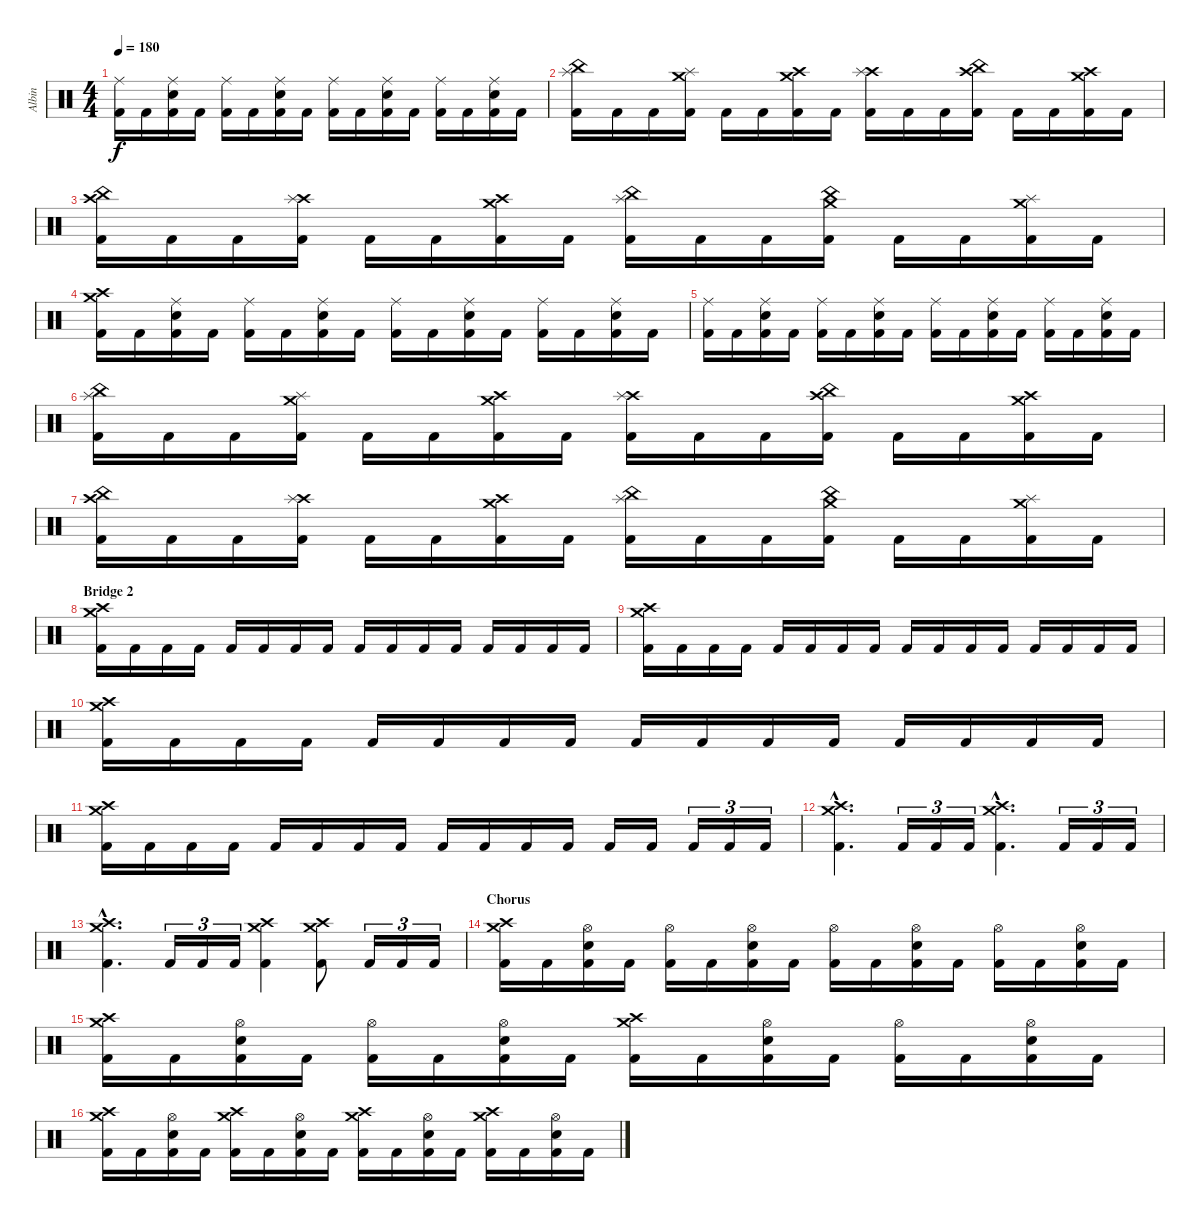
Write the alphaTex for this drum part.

\track ("Albin" "Albin") {instrument percussion}
\staff {score}
\articulation defaults
\ts (4 4)
\tempo 180
\clef neutral
\ks c
("Kick (hit) 2" "Ride (middle)").16{dy f} "Kick (hit) 2".16 ("Kick (hit) 2" "Electric Snare (hit)" "Ride (middle)").16 "Kick (hit) 2".16 ("Kick (hit) 2" "Ride (middle)").16 "Kick (hit) 2".16 ("Kick (hit) 2" "Electric Snare (hit)" "Ride (middle)").16 "Kick (hit) 2".16 ("Kick (hit) 2" "Ride (middle)").16 "Kick (hit) 2".16 ("Kick (hit) 2" "Electric Snare (hit)" "Ride (middle)").16 "Kick (hit) 2".16 ("Kick (hit) 2" "Ride (middle)").16 "Kick (hit) 2".16 ("Kick (hit) 2" "Electric Snare (hit)" "Ride (middle)").16 "Kick (hit) 2".16 |
("Kick (hit) 2" "Splash (hit)" "China (hit)").16 "Kick (hit) 2".16 "Kick (hit) 2".16 ("Kick (hit) 2" "Crash medium (hit)" "Splash (hit)").16 "Kick (hit) 2".16 "Kick (hit) 2".16 ("Kick (hit) 2" "Crash high (hit)" "Crash medium (hit)").16 "Kick (hit) 2".16 ("Kick (hit) 2" "Crash high (hit)" "Splash (hit)").16 "Kick (hit) 2".16 "Kick (hit) 2".16 ("Kick (hit) 2" "Crash high (hit)" "China (hit)").16 "Kick (hit) 2".16 "Kick (hit) 2".16 ("Kick (hit) 2" "Crash high (hit)" "Crash medium (hit)").16 "Kick (hit) 2".16 |
("Kick (hit) 2" "Crash high (hit)" "China (hit)").16 "Kick (hit) 2".16 "Kick (hit) 2".16 ("Kick (hit) 2" "Crash high (hit)" "Splash (hit)").16 "Kick (hit) 2".16 "Kick (hit) 2".16 ("Kick (hit) 2" "Crash high (hit)" "Crash medium (hit)").16 "Kick (hit) 2".16 ("Kick (hit) 2" "China (hit)" "Splash (hit)").16 "Kick (hit) 2".16 "Kick (hit) 2".16 ("Kick (hit) 2" "China (hit)" "Crash medium (hit)").16 "Kick (hit) 2".16 "Kick (hit) 2".16 ("Kick (hit) 2" "Splash (hit)" "Crash medium (hit)").16 "Kick (hit) 2".16 |
("Kick (hit) 2" "Crash high (hit)" "Crash medium (hit)").16 "Kick (hit) 2".16 ("Kick (hit) 2" "Electric Snare (hit)" "Ride (middle)").16 "Kick (hit) 2".16 ("Kick (hit) 2" "Ride (middle)").16 "Kick (hit) 2".16 ("Kick (hit) 2" "Electric Snare (hit)" "Ride (middle)").16 "Kick (hit) 2".16 ("Kick (hit) 2" "Ride (middle)").16 "Kick (hit) 2".16 ("Kick (hit) 2" "Electric Snare (hit)" "Ride (middle)").16 "Kick (hit) 2".16 ("Kick (hit) 2" "Ride (middle)").16 "Kick (hit) 2".16 ("Kick (hit) 2" "Electric Snare (hit)" "Ride (middle)").16 "Kick (hit) 2".16 |
("Kick (hit) 2" "Ride (middle)").16 "Kick (hit) 2".16 ("Kick (hit) 2" "Electric Snare (hit)" "Ride (middle)").16 "Kick (hit) 2".16 ("Kick (hit) 2" "Ride (middle)").16 "Kick (hit) 2".16 ("Kick (hit) 2" "Electric Snare (hit)" "Ride (middle)").16 "Kick (hit) 2".16 ("Kick (hit) 2" "Ride (middle)").16 "Kick (hit) 2".16 ("Kick (hit) 2" "Electric Snare (hit)" "Ride (middle)").16 "Kick (hit) 2".16 ("Kick (hit) 2" "Ride (middle)").16 "Kick (hit) 2".16 ("Kick (hit) 2" "Electric Snare (hit)" "Ride (middle)").16 "Kick (hit) 2".16 |
("Kick (hit) 2" "Splash (hit)" "China (hit)").16 "Kick (hit) 2".16 "Kick (hit) 2".16 ("Kick (hit) 2" "Crash medium (hit)" "Splash (hit)").16 "Kick (hit) 2".16 "Kick (hit) 2".16 ("Kick (hit) 2" "Crash high (hit)" "Crash medium (hit)").16 "Kick (hit) 2".16 ("Kick (hit) 2" "Crash high (hit)" "Splash (hit)").16 "Kick (hit) 2".16 "Kick (hit) 2".16 ("Kick (hit) 2" "Crash high (hit)" "China (hit)").16 "Kick (hit) 2".16 "Kick (hit) 2".16 ("Kick (hit) 2" "Crash high (hit)" "Crash medium (hit)").16 "Kick (hit) 2".16 |
("Kick (hit) 2" "Crash high (hit)" "China (hit)").16 "Kick (hit) 2".16 "Kick (hit) 2".16 ("Kick (hit) 2" "Crash high (hit)" "Splash (hit)").16 "Kick (hit) 2".16 "Kick (hit) 2".16 ("Kick (hit) 2" "Crash high (hit)" "Crash medium (hit)").16 "Kick (hit) 2".16 ("Kick (hit) 2" "China (hit)" "Splash (hit)").16 "Kick (hit) 2".16 "Kick (hit) 2".16 ("Kick (hit) 2" "China (hit)" "Crash medium (hit)").16 "Kick (hit) 2".16 "Kick (hit) 2".16 ("Kick (hit) 2" "Splash (hit)" "Crash medium (hit)").16 "Kick (hit) 2".16 |
\section ("" "Bridge 2")
("Kick (hit) 2" "Crash high (hit)" "Crash medium (hit)").16 "Kick (hit) 2".16 "Kick (hit) 2".16 "Kick (hit) 2".16 "Kick (hit) 2".16 "Kick (hit) 2".16 "Kick (hit) 2".16 "Kick (hit) 2".16 "Kick (hit) 2".16 "Kick (hit) 2".16 "Kick (hit) 2".16 "Kick (hit) 2".16 "Kick (hit) 2".16 "Kick (hit) 2".16 "Kick (hit) 2".16 "Kick (hit) 2".16 |
("Kick (hit) 2" "Crash high (hit)" "Crash medium (hit)").16 "Kick (hit) 2".16 "Kick (hit) 2".16 "Kick (hit) 2".16 "Kick (hit) 2".16 "Kick (hit) 2".16 "Kick (hit) 2".16 "Kick (hit) 2".16 "Kick (hit) 2".16 "Kick (hit) 2".16 "Kick (hit) 2".16 "Kick (hit) 2".16 "Kick (hit) 2".16 "Kick (hit) 2".16 "Kick (hit) 2".16 "Kick (hit) 2".16 |
("Kick (hit) 2" "Crash high (hit)" "Crash medium (hit)").16 "Kick (hit) 2".16 "Kick (hit) 2".16 "Kick (hit) 2".16 "Kick (hit) 2".16 "Kick (hit) 2".16 "Kick (hit) 2".16 "Kick (hit) 2".16 "Kick (hit) 2".16 "Kick (hit) 2".16 "Kick (hit) 2".16 "Kick (hit) 2".16 "Kick (hit) 2".16 "Kick (hit) 2".16 "Kick (hit) 2".16 "Kick (hit) 2".16 |
("Kick (hit) 2" "Crash high (hit)" "Crash medium (hit)").16 "Kick (hit) 2".16 "Kick (hit) 2".16 "Kick (hit) 2".16 "Kick (hit) 2".16 "Kick (hit) 2".16 "Kick (hit) 2".16 "Kick (hit) 2".16 "Kick (hit) 2".16 "Kick (hit) 2".16 "Kick (hit) 2".16 "Kick (hit) 2".16 "Kick (hit) 2".16 "Kick (hit) 2".16 "Kick (hit) 2".16{tu (3 2)} "Kick (hit) 2".16{tu (3 2)} "Kick (hit) 2".16{tu (3 2)} |
("Kick (hit) 2"{hac} "Crash high (hit)"{hac} "Crash medium (hit)"{hac}).4{d} "Kick (hit) 2".16{tu (3 2)} "Kick (hit) 2".16{tu (3 2)} "Kick (hit) 2".16{tu (3 2)} ("Kick (hit) 2"{hac} "Crash high (hit)"{hac} "Crash medium (hit)"{hac}).4{d} "Kick (hit) 2".16{tu (3 2)} "Kick (hit) 2".16{tu (3 2)} "Kick (hit) 2".16{tu (3 2)} |
("Kick (hit) 2"{hac} "Crash high (hit)"{hac} "Crash medium (hit)"{hac}).4{d} "Kick (hit) 2".16{tu (3 2)} "Kick (hit) 2".16{tu (3 2)} "Kick (hit) 2".16{tu (3 2)} ("Kick (hit) 2" "Crash high (hit)" "Crash medium (hit)").4 ("Kick (hit) 2" "Crash high (hit)" "Crash medium (hit)").8 "Kick (hit) 2".16{tu (3 2)} "Kick (hit) 2".16{tu (3 2)} "Kick (hit) 2".16{tu (3 2)} |
\section ("" "Chorus")
("Kick (hit) 2" "Crash high (hit)" "Crash medium (hit)").16 "Kick (hit) 2".16 ("Kick (hit) 2" "Electric Snare (hit)" "Hi-Hat (open)").16 "Kick (hit) 2".16 ("Kick (hit) 2" "Hi-Hat (open)").16 "Kick (hit) 2".16 ("Kick (hit) 2" "Electric Snare (hit)" "Hi-Hat (open)").16 "Kick (hit) 2".16 ("Kick (hit) 2" "Hi-Hat (open)").16 "Kick (hit) 2".16 ("Kick (hit) 2" "Electric Snare (hit)" "Hi-Hat (open)").16 "Kick (hit) 2".16 ("Kick (hit) 2" "Hi-Hat (open)").16 "Kick (hit) 2".16 ("Kick (hit) 2" "Electric Snare (hit)" "Hi-Hat (open)").16 "Kick (hit) 2".16 |
("Kick (hit) 2" "Crash high (hit)" "Crash medium (hit)").16 "Kick (hit) 2".16 ("Kick (hit) 2" "Electric Snare (hit)" "Hi-Hat (open)").16 "Kick (hit) 2".16 ("Kick (hit) 2" "Hi-Hat (open)").16 "Kick (hit) 2".16 ("Kick (hit) 2" "Electric Snare (hit)" "Hi-Hat (open)").16 "Kick (hit) 2".16 ("Kick (hit) 2" "Crash high (hit)" "Crash medium (hit)").16 "Kick (hit) 2".16 ("Kick (hit) 2" "Electric Snare (hit)" "Hi-Hat (open)").16 "Kick (hit) 2".16 ("Kick (hit) 2" "Hi-Hat (open)").16 "Kick (hit) 2".16 ("Kick (hit) 2" "Electric Snare (hit)" "Hi-Hat (open)").16 "Kick (hit) 2".16 |
("Kick (hit) 2" "Crash high (hit)" "Crash medium (hit)").16 "Kick (hit) 2".16 ("Kick (hit) 2" "Electric Snare (hit)" "Hi-Hat (open)").16 "Kick (hit) 2".16 ("Kick (hit) 2" "Crash high (hit)" "Crash medium (hit)").16 "Kick (hit) 2".16 ("Kick (hit) 2" "Electric Snare (hit)" "Hi-Hat (open)").16 "Kick (hit) 2".16 ("Kick (hit) 2" "Crash high (hit)" "Crash medium (hit)").16 "Kick (hit) 2".16 ("Kick (hit) 2" "Electric Snare (hit)" "Hi-Hat (open)").16 "Kick (hit) 2".16 ("Kick (hit) 2" "Crash high (hit)" "Crash medium (hit)").16 "Kick (hit) 2".16 ("Kick (hit) 2" "Electric Snare (hit)" "Hi-Hat (open)").16 "Kick (hit) 2".16
